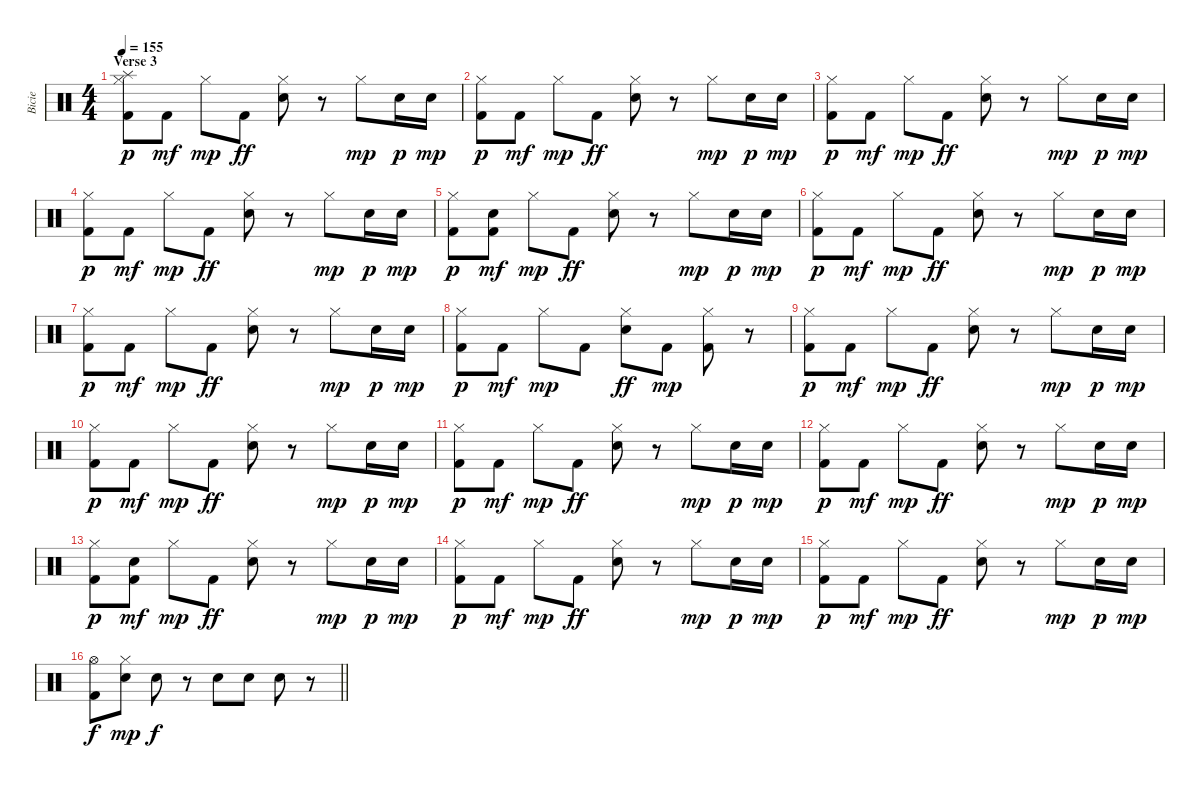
\track ("Bicie" "Bicie") {instrument percussion}
\staff {score}
\articulation defaults
\ts (4 4)
\section ("" "Verse 3")
\tempo 155
\clef neutral
\ks c
("Hi-Hat (closed)" "Splash (hit)" "Kick (hit) 2").8{dy p} "Kick (hit) 2".8{dy mf} "Hi-Hat (closed)".8{dy mp} "Kick (hit) 2".8{dy ff} ("Hi-Hat (closed)" "Electric Snare (hit)").8 r.8 "Hi-Hat (closed)".8{dy mp} "Electric Snare (hit)".16{dy p} "Electric Snare (hit)".16{dy mp} |
("Hi-Hat (closed)" "Kick (hit) 2").8{dy p} "Kick (hit) 2".8{dy mf} "Hi-Hat (closed)".8{dy mp} "Kick (hit) 2".8{dy ff} ("Hi-Hat (closed)" "Electric Snare (hit)").8 r.8 "Hi-Hat (closed)".8{dy mp} "Electric Snare (hit)".16{dy p} "Electric Snare (hit)".16{dy mp} |
("Hi-Hat (closed)" "Kick (hit) 2").8{dy p} "Kick (hit) 2".8{dy mf} "Hi-Hat (closed)".8{dy mp} "Kick (hit) 2".8{dy ff} ("Hi-Hat (closed)" "Electric Snare (hit)").8 r.8 "Hi-Hat (closed)".8{dy mp} "Electric Snare (hit)".16{dy p} "Electric Snare (hit)".16{dy mp} |
("Hi-Hat (closed)" "Kick (hit) 2").8{dy p} "Kick (hit) 2".8{dy mf} "Hi-Hat (closed)".8{dy mp} "Kick (hit) 2".8{dy ff} ("Hi-Hat (closed)" "Electric Snare (hit)").8 r.8 "Hi-Hat (closed)".8{dy mp} "Electric Snare (hit)".16{dy p} "Electric Snare (hit)".16{dy mp} |
("Hi-Hat (closed)" "Kick (hit) 2").8{dy p} ("Electric Snare (hit)" "Kick (hit) 2").8{dy mf} "Hi-Hat (closed)".8{dy mp} "Kick (hit) 2".8{dy ff} ("Hi-Hat (closed)" "Electric Snare (hit)").8 r.8 "Hi-Hat (closed)".8{dy mp} "Electric Snare (hit)".16{dy p} "Electric Snare (hit)".16{dy mp} |
("Hi-Hat (closed)" "Kick (hit) 2").8{dy p} "Kick (hit) 2".8{dy mf} "Hi-Hat (closed)".8{dy mp} "Kick (hit) 2".8{dy ff} ("Hi-Hat (closed)" "Electric Snare (hit)").8 r.8 "Hi-Hat (closed)".8{dy mp} "Electric Snare (hit)".16{dy p} "Electric Snare (hit)".16{dy mp} |
("Hi-Hat (closed)" "Kick (hit) 2").8{dy p} "Kick (hit) 2".8{dy mf} "Hi-Hat (closed)".8{dy mp} "Kick (hit) 2".8{dy ff} ("Hi-Hat (closed)" "Electric Snare (hit)").8 r.8 "Hi-Hat (closed)".8{dy mp} "Electric Snare (hit)".16{dy p} "Electric Snare (hit)".16{dy mp} |
("Hi-Hat (closed)" "Kick (hit) 2").8{dy p} "Kick (hit) 2".8{dy mf} "Hi-Hat (closed)".8{dy mp} "Kick (hit) 2".8 ("Hi-Hat (closed)" "Electric Snare (hit)").8{dy ff} "Kick (hit) 2".8{dy mp} ("Hi-Hat (closed)" "Kick (hit) 2").8 r.8 |
("Hi-Hat (closed)" "Kick (hit) 2").8{dy p} "Kick (hit) 2".8{dy mf} "Hi-Hat (closed)".8{dy mp} "Kick (hit) 2".8{dy ff} ("Hi-Hat (closed)" "Electric Snare (hit)").8 r.8 "Hi-Hat (closed)".8{dy mp} "Electric Snare (hit)".16{dy p} "Electric Snare (hit)".16{dy mp} |
("Hi-Hat (closed)" "Kick (hit) 2").8{dy p} "Kick (hit) 2".8{dy mf} "Hi-Hat (closed)".8{dy mp} "Kick (hit) 2".8{dy ff} ("Hi-Hat (closed)" "Electric Snare (hit)").8 r.8 "Hi-Hat (closed)".8{dy mp} "Electric Snare (hit)".16{dy p} "Electric Snare (hit)".16{dy mp} |
("Hi-Hat (closed)" "Kick (hit) 2").8{dy p} "Kick (hit) 2".8{dy mf} "Hi-Hat (closed)".8{dy mp} "Kick (hit) 2".8{dy ff} ("Hi-Hat (closed)" "Electric Snare (hit)").8 r.8 "Hi-Hat (closed)".8{dy mp} "Electric Snare (hit)".16{dy p} "Electric Snare (hit)".16{dy mp} |
("Hi-Hat (closed)" "Kick (hit) 2").8{dy p} "Kick (hit) 2".8{dy mf} "Hi-Hat (closed)".8{dy mp} "Kick (hit) 2".8{dy ff} ("Hi-Hat (closed)" "Electric Snare (hit)").8 r.8 "Hi-Hat (closed)".8{dy mp} "Electric Snare (hit)".16{dy p} "Electric Snare (hit)".16{dy mp} |
("Hi-Hat (closed)" "Kick (hit) 2").8{dy p} ("Electric Snare (hit)" "Kick (hit) 2").8{dy mf} "Hi-Hat (closed)".8{dy mp} "Kick (hit) 2".8{dy ff} ("Hi-Hat (closed)" "Electric Snare (hit)").8 r.8 "Hi-Hat (closed)".8{dy mp} "Electric Snare (hit)".16{dy p} "Electric Snare (hit)".16{dy mp} |
("Hi-Hat (closed)" "Kick (hit) 2").8{dy p} "Kick (hit) 2".8{dy mf} "Hi-Hat (closed)".8{dy mp} "Kick (hit) 2".8{dy ff} ("Hi-Hat (closed)" "Electric Snare (hit)").8 r.8 "Hi-Hat (closed)".8{dy mp} "Electric Snare (hit)".16{dy p} "Electric Snare (hit)".16{dy mp} |
("Hi-Hat (closed)" "Kick (hit) 2").8{dy p} "Kick (hit) 2".8{dy mf} "Hi-Hat (closed)".8{dy mp} "Kick (hit) 2".8{dy ff} ("Hi-Hat (closed)" "Electric Snare (hit)").8 r.8 "Hi-Hat (closed)".8{dy mp} "Electric Snare (hit)".16{dy p} "Electric Snare (hit)".16{dy mp} |
\barLineRight lightlight
("Hi-Hat (open)" "Kick (hit) 2").8{dy f} ("Hi-Hat (closed)" "Electric Snare (hit)").8{dy mp} "Electric Snare (hit)".8{dy f} r.8 "Electric Snare (hit)".8 "Electric Snare (hit)".8 "Electric Snare (hit)".8 r.8
